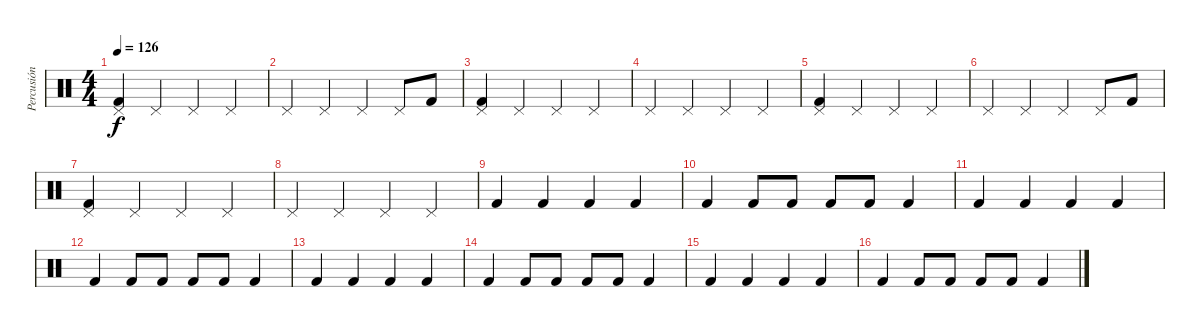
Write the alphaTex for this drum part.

\track ("Percusión" "Percusión") {instrument percussion}
\staff {score}
\articulation defaults
\ts (4 4)
\tempo 126
\clef neutral
\ks c
("Pedal Hi-Hat (hit)" "Kick (hit) 2").4{dy f} "Pedal Hi-Hat (hit)".4 "Pedal Hi-Hat (hit)".4 "Pedal Hi-Hat (hit)".4 |
"Pedal Hi-Hat (hit)".4 "Pedal Hi-Hat (hit)".4 "Pedal Hi-Hat (hit)".4 "Pedal Hi-Hat (hit)".8 "Kick (hit) 2".8 |
("Pedal Hi-Hat (hit)" "Kick (hit) 2").4 "Pedal Hi-Hat (hit)".4 "Pedal Hi-Hat (hit)".4 "Pedal Hi-Hat (hit)".4 |
"Pedal Hi-Hat (hit)".4 "Pedal Hi-Hat (hit)".4 "Pedal Hi-Hat (hit)".4 "Pedal Hi-Hat (hit)".4 |
("Pedal Hi-Hat (hit)" "Kick (hit) 2").4 "Pedal Hi-Hat (hit)".4 "Pedal Hi-Hat (hit)".4 "Pedal Hi-Hat (hit)".4 |
"Pedal Hi-Hat (hit)".4 "Pedal Hi-Hat (hit)".4 "Pedal Hi-Hat (hit)".4 "Pedal Hi-Hat (hit)".8 "Kick (hit) 2".8 |
("Pedal Hi-Hat (hit)" "Kick (hit) 2").4 "Pedal Hi-Hat (hit)".4 "Pedal Hi-Hat (hit)".4 "Pedal Hi-Hat (hit)".4 |
"Pedal Hi-Hat (hit)".4 "Pedal Hi-Hat (hit)".4 "Pedal Hi-Hat (hit)".4 "Pedal Hi-Hat (hit)".4 |
"Kick (hit) 2".4 "Kick (hit) 2".4 "Kick (hit) 2".4 "Kick (hit) 2".4 |
"Kick (hit) 2".4 "Kick (hit) 2".8 "Kick (hit) 2".8 "Kick (hit) 2".8 "Kick (hit) 2".8 "Kick (hit) 2".4 |
"Kick (hit) 2".4 "Kick (hit) 2".4 "Kick (hit) 2".4 "Kick (hit) 2".4 |
"Kick (hit) 2".4 "Kick (hit) 2".8 "Kick (hit) 2".8 "Kick (hit) 2".8 "Kick (hit) 2".8 "Kick (hit) 2".4 |
"Kick (hit) 2".4 "Kick (hit) 2".4 "Kick (hit) 2".4 "Kick (hit) 2".4 |
"Kick (hit) 2".4 "Kick (hit) 2".8 "Kick (hit) 2".8 "Kick (hit) 2".8 "Kick (hit) 2".8 "Kick (hit) 2".4 |
"Kick (hit) 2".4 "Kick (hit) 2".4 "Kick (hit) 2".4 "Kick (hit) 2".4 |
"Kick (hit) 2".4 "Kick (hit) 2".8 "Kick (hit) 2".8 "Kick (hit) 2".8 "Kick (hit) 2".8 "Kick (hit) 2".4
